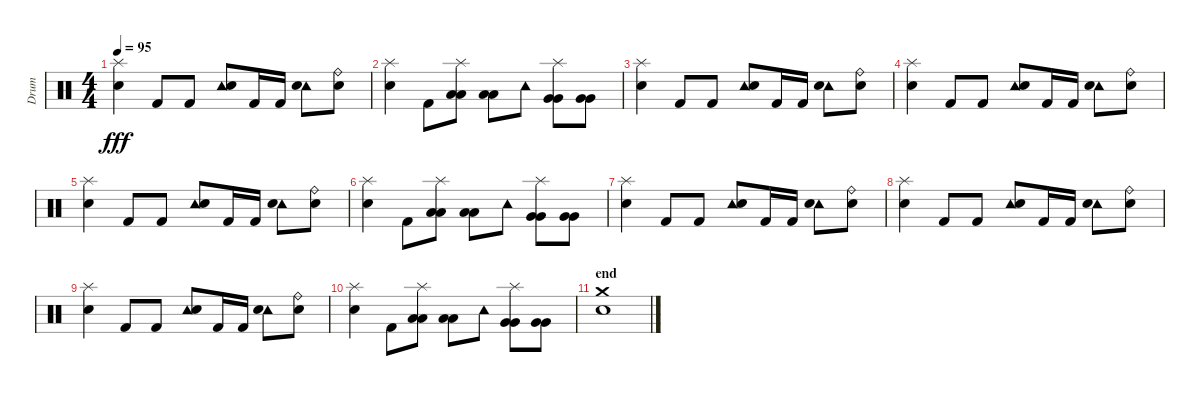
\track ("Drum" "Drum") {instrument percussion}
\staff {score}
\articulation defaults
\ts (4 4)
\tempo 95
\clef neutral
\ks c
("Splash (hit)" "Snare (hit) 2").4{dy fff} "Kick (hit) 2".8 "Kick (hit) 2".8 ("Tambourine (hit)" "Snare (hit) 2").8 "Kick (hit) 2".16 "Kick (hit) 2".16 ("Tambourine (hit)" "Snare (hit) 2").8 ("Snare (hit) 2" "Ride (bell)").8 |
("Splash (hit)" "Snare (hit) 2").4 "Kick (hit) 2".8 ("Low Tom (hit)" "Low Tom (hit)" "Splash (hit)").8 ("Low Tom (hit)" "Low Tom (hit)").8 "Tambourine (hit)".8 ("Very Low Tom (hit)" "Very Low Tom (hit)" "Splash (hit)").8 ("Very Low Tom (hit)" "Very Low Tom (hit)").8 |
("Splash (hit)" "Snare (hit) 2").4 "Kick (hit) 2".8 "Kick (hit) 2".8 ("Tambourine (hit)" "Snare (hit) 2").8 "Kick (hit) 2".16 "Kick (hit) 2".16 ("Tambourine (hit)" "Snare (hit) 2").8 ("Snare (hit) 2" "Ride (bell)").8 |
("Splash (hit)" "Snare (hit) 2").4 "Kick (hit) 2".8 "Kick (hit) 2".8 ("Tambourine (hit)" "Snare (hit) 2").8 "Kick (hit) 2".16 "Kick (hit) 2".16 ("Tambourine (hit)" "Snare (hit) 2").8 ("Snare (hit) 2" "Ride (bell)").8 |
("Splash (hit)" "Snare (hit) 2").4 "Kick (hit) 2".8 "Kick (hit) 2".8 ("Tambourine (hit)" "Snare (hit) 2").8 "Kick (hit) 2".16 "Kick (hit) 2".16 ("Tambourine (hit)" "Snare (hit) 2").8 ("Snare (hit) 2" "Ride (bell)").8 |
("Splash (hit)" "Snare (hit) 2").4 "Kick (hit) 2".8 ("Low Tom (hit)" "Low Tom (hit)" "Splash (hit)").8 ("Low Tom (hit)" "Low Tom (hit)").8 "Tambourine (hit)".8 ("Very Low Tom (hit)" "Very Low Tom (hit)" "Splash (hit)").8 ("Very Low Tom (hit)" "Very Low Tom (hit)").8 |
("Splash (hit)" "Snare (hit) 2").4 "Kick (hit) 2".8 "Kick (hit) 2".8 ("Tambourine (hit)" "Snare (hit) 2").8 "Kick (hit) 2".16 "Kick (hit) 2".16 ("Tambourine (hit)" "Snare (hit) 2").8 ("Snare (hit) 2" "Ride (bell)").8 |
("Splash (hit)" "Snare (hit) 2").4 "Kick (hit) 2".8 "Kick (hit) 2".8 ("Tambourine (hit)" "Snare (hit) 2").8 "Kick (hit) 2".16 "Kick (hit) 2".16 ("Tambourine (hit)" "Snare (hit) 2").8 ("Snare (hit) 2" "Ride (bell)").8 |
("Splash (hit)" "Snare (hit) 2").4 "Kick (hit) 2".8 "Kick (hit) 2".8 ("Tambourine (hit)" "Snare (hit) 2").8 "Kick (hit) 2".16 "Kick (hit) 2".16 ("Tambourine (hit)" "Snare (hit) 2").8 ("Snare (hit) 2" "Ride (bell)").8 |
("Splash (hit)" "Snare (hit) 2").4 "Kick (hit) 2".8 ("Low Tom (hit)" "Low Tom (hit)" "Splash (hit)").8 ("Low Tom (hit)" "Low Tom (hit)").8 "Tambourine (hit)".8 ("Very Low Tom (hit)" "Very Low Tom (hit)" "Splash (hit)").8 ("Very Low Tom (hit)" "Very Low Tom (hit)").8 |
\section ("" "end")
("Electric Snare (hit)" "Crash medium (hit)").1
